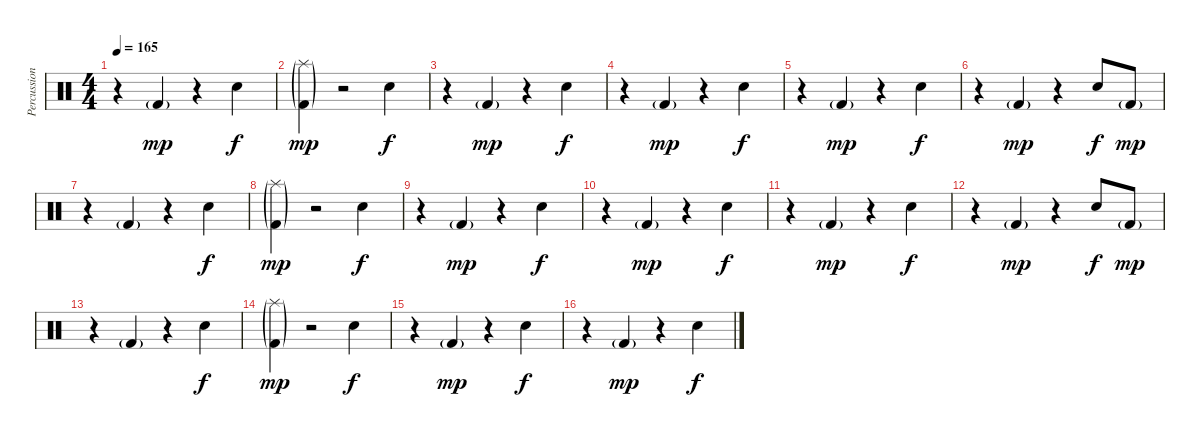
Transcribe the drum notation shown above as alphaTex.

\track ("Percussions" "Percussion") {instrument percussion}
\staff {score}
\articulation defaults
\ts (4 4)
\tempo 165
\clef neutral
\ks c
r.4{dy mp} "Kick (hit) 2"{g}.4 r.4 "Electric Snare (hit)".4{dy f} |
("Splash (hit)"{g} "Kick (hit) 2"{g}).4{dy mp} r.2 "Electric Snare (hit)".4{dy f} |
r.4 "Kick (hit) 2"{g}.4{dy mp} r.4 "Electric Snare (hit)".4{dy f} |
r.4 "Kick (hit) 2"{g}.4{dy mp} r.4 "Electric Snare (hit)".4{dy f} |
r.4 "Kick (hit) 2"{g}.4{dy mp} r.4 "Electric Snare (hit)".4{dy f} |
r.4 "Kick (hit) 2"{g}.4{dy mp} r.4 "Electric Snare (hit)".8{dy f} "Kick (hit) 2"{g}.8{dy mp} |
r.4 "Kick (hit) 2"{g}.4 r.4 "Electric Snare (hit)".4{dy f} |
("Splash (hit)"{g} "Kick (hit) 2"{g}).4{dy mp} r.2 "Electric Snare (hit)".4{dy f} |
r.4 "Kick (hit) 2"{g}.4{dy mp} r.4 "Electric Snare (hit)".4{dy f} |
r.4 "Kick (hit) 2"{g}.4{dy mp} r.4 "Electric Snare (hit)".4{dy f} |
r.4 "Kick (hit) 2"{g}.4{dy mp} r.4 "Electric Snare (hit)".4{dy f} |
r.4 "Kick (hit) 2"{g}.4{dy mp} r.4 "Electric Snare (hit)".8{dy f} "Kick (hit) 2"{g}.8{dy mp} |
r.4 "Kick (hit) 2"{g}.4 r.4 "Electric Snare (hit)".4{dy f} |
("Splash (hit)"{g} "Kick (hit) 2"{g}).4{dy mp} r.2 "Electric Snare (hit)".4{dy f} |
r.4 "Kick (hit) 2"{g}.4{dy mp} r.4 "Electric Snare (hit)".4{dy f} |
r.4 "Kick (hit) 2"{g}.4{dy mp} r.4 "Electric Snare (hit)".4{dy f}
